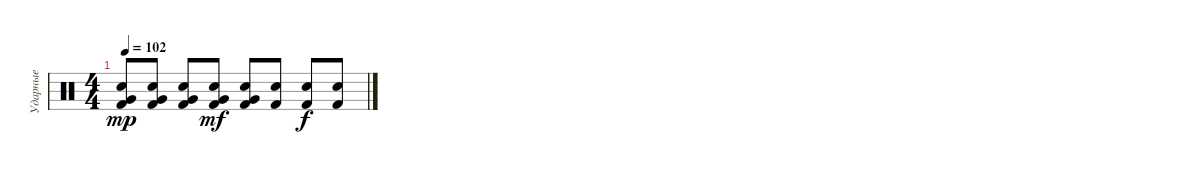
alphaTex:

\track ("Ударные" "Ударные") {instrument percussion}
\staff {score}
\articulation defaults
\ts (4 4)
\tempo 102
\clef neutral
\ks c
("Kick (hit) 2" "Electric Snare (hit)" "Very Low Tom (hit)").8{dy mp} ("Kick (hit) 2" "Electric Snare (hit)" "Very Low Tom (hit)").8 ("Kick (hit) 2" "Electric Snare (hit)" "Very Low Tom (hit)").8 ("Kick (hit) 2" "Electric Snare (hit)" "Very Low Tom (hit)").8{dy mf} ("Kick (hit) 2" "Electric Snare (hit)" "Very Low Tom (hit)").8 ("Kick (hit) 2" "Electric Snare (hit)").8 ("Kick (hit) 2" "Electric Snare (hit)").8{dy f} ("Kick (hit) 2" "Electric Snare (hit)").8
